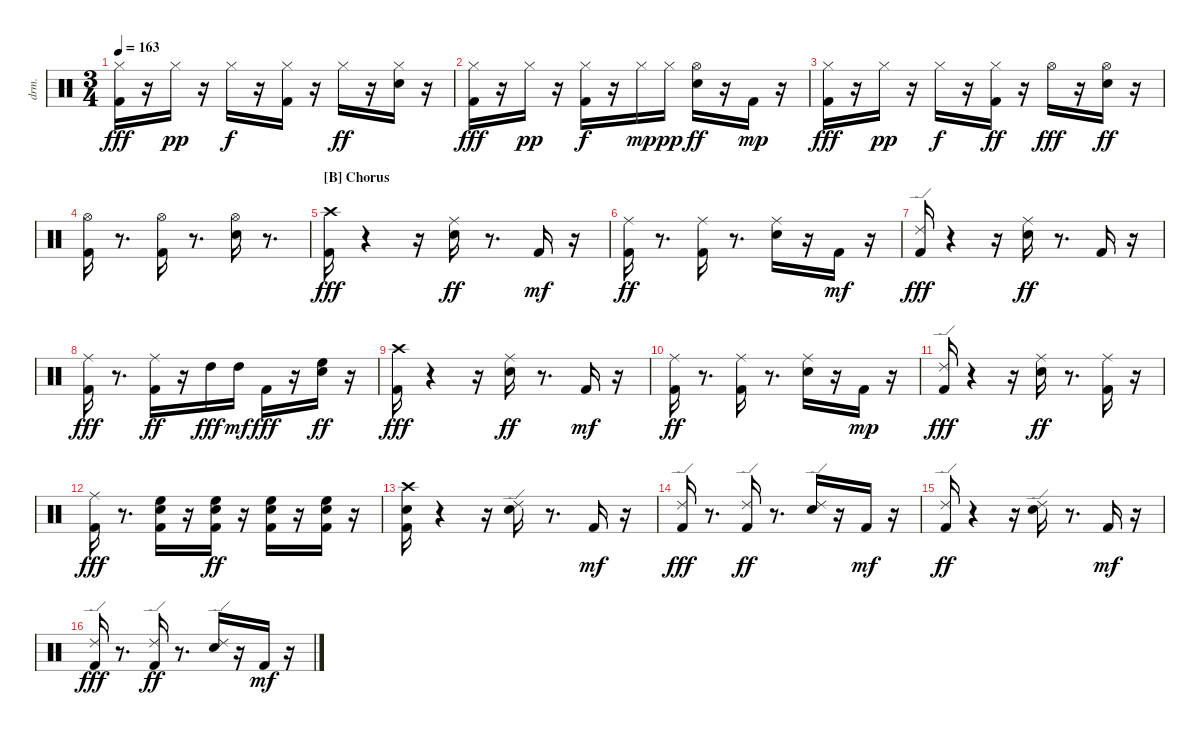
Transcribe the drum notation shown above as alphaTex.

\bracketExtendMode nobrackets
\track ("EZdrummer 3" "drm.") {instrument percussion}
\staff {score}
\articulation defaults
\ts (3 4)
\tempo 163
\clef neutral
\ks aminor
("Kick (hit) 2" "Hi-Hat (closed)"{acc #}).16{dy fff beam Down} r.16{beam Down} "Hi-Hat (closed)"{acc #}.16{dy pp beam Down} r.16{beam Down} "Hi-Hat (closed)"{acc #}.16{dy f beam Down} r.16{beam Down} ("Kick (hit) 2" "Hi-Hat (closed)"{acc #}).16{beam Down} r.16{beam Down} "Hi-Hat (closed)"{acc #}.16{dy ff beam Down} r.16{beam Down} ("Snare (hit) 2" "Hi-Hat (closed)"{acc #}).16{beam Down} r.16{beam Down} |
("Kick (hit) 2" "Hi-Hat (closed)"{acc #}).16{dy fff beam Down} r.16{beam Down} "Hi-Hat (closed)"{acc #}.16{dy pp beam Down} r.16{beam Down} ("Kick (hit) 2" "Hi-Hat (closed)"{acc #}).16{dy f beam Down} r.16{beam Down} "Hi-Hat (closed)"{acc #}.16{dy mp beam Down} "Hi-Hat (closed)"{acc #}.16{dy pp beam Down} ("Snare (hit) 2" "Hi-Hat (open)"{acc #}).16{dy ff beam Down} r.16{beam Down} "Kick (hit) 2".16{dy mp beam Down} r.16{beam Down} |
("Kick (hit) 2" "Hi-Hat (closed)"{acc #}).16{dy fff beam Down} r.16{beam Down} "Hi-Hat (closed)"{acc #}.16{dy pp beam Down} r.16{beam Down} "Hi-Hat (closed)"{acc #}.16{dy f beam Down} r.16{beam Down} ("Kick (hit) 2" "Hi-Hat (closed)"{acc #}).16{dy ff beam Down} r.16{beam Down} "Hi-Hat (open)"{acc #}.16{dy fff beam Down} r.16{beam Down} ("Snare (hit) 2" "Hi-Hat (open)"{acc #}).16{dy ff beam Down} r.16{beam Down} |
("Kick (hit) 2" "Hi-Hat (open)"{acc #}).16{beam Down} r.8{d beam Down} ("Kick (hit) 2" "Hi-Hat (open)"{acc #}).16{beam Down} r.8{d beam Down} ("Snare (hit) 2" "Hi-Hat (open)"{acc #}).16{beam Down} r.8{d beam Down} |
\section ("B" "Chorus")
("Kick (hit) 2" "Crash high (hit)"{acc #}).16{dy fff beam Down} r.4{beam Down} r.16{beam Down} ("Snare (hit) 2" "Ride (middle)"{acc #}).16{dy ff beam Down} r.8{d beam Down} "Kick (hit) 2".16{dy mf beam Up} r.16{beam Down} |
("Kick (hit) 2" "Ride (middle)"{acc #}).16{dy ff beam Down} r.8{d beam Down} ("Kick (hit) 2" "Ride (middle)"{acc #}).16{beam Down} r.8{d beam Down} ("Snare (hit) 2" "Ride (middle)"{acc #}).16{beam Down} r.16{beam Down} "Kick (hit) 2".16{dy mf beam Down} r.16{beam Down} |
("Kick (hit) 2" "Ride (edge) 2").16{dy fff beam Up} r.4{beam Down} r.16{beam Down} ("Snare (hit) 2" "Ride (middle)"{acc #}).16{dy ff beam Down} r.8{d beam Down} "Kick (hit) 2".16{beam Up} r.16{beam Down} |
("Kick (hit) 2" "Ride (middle)"{acc #}).16{dy fff beam Down} r.8{d beam Down} ("Kick (hit) 2" "Ride (middle)"{acc #}).16{dy ff beam Down} r.16{beam Down} "High Tom (hit)".16{dy fff beam Down} "High Tom (hit)".16{dy mf beam Down} "Kick (hit) 2".16{dy fff beam Down} r.16{beam Down} ("Snare (hit) 2" "High Floor Tom (hit)").16{dy ff beam Down} r.16{beam Down} |
("Kick (hit) 2" "Crash high (hit)"{acc #}).16{dy fff beam Down} r.4{beam Down} r.16{beam Down} ("Snare (hit) 2" "Ride (middle)"{acc #}).16{dy ff beam Down} r.8{d beam Down} "Kick (hit) 2".16{dy mf beam Up} r.16{beam Down} |
("Kick (hit) 2" "Ride (middle)"{acc #}).16{dy ff beam Down} r.8{d beam Down} ("Kick (hit) 2" "Ride (middle)"{acc #}).16{beam Down} r.8{d beam Down} ("Snare (hit) 2" "Ride (middle)"{acc #}).16{beam Down} r.16{beam Down} "Kick (hit) 2".16{dy mp beam Down} r.16{beam Down} |
("Kick (hit) 2" "Ride (edge) 2").16{dy fff beam Up} r.4{beam Down} r.16{beam Down} ("Snare (hit) 2" "Ride (middle)"{acc #}).16{dy ff beam Down} r.8{d beam Down} ("Kick (hit) 2" "Ride (middle)"{acc #}).16{beam Down} r.16{beam Down} |
("Kick (hit) 2" "Ride (middle)"{acc #}).16{dy fff beam Down} r.8{d beam Down} ("Kick (hit) 2" "Snare (hit) 2" "High Floor Tom (hit)").16{beam Down} r.16{beam Down} ("Kick (hit) 2" "Snare (hit) 2" "High Floor Tom (hit)").16{dy ff beam Down} r.16{beam Down} ("Kick (hit) 2" "Snare (hit) 2" "High Floor Tom (hit)").16{beam Down} r.16{beam Down} ("Kick (hit) 2" "Snare (hit) 2" "High Floor Tom (hit)").16{beam Down} r.16{beam Down} |
("Kick (hit) 2" "Snare (hit) 2" "Crash high (hit)"{acc #}).16{beam Down} r.4{beam Down} r.16{beam Down} ("Snare (hit) 2" "Ride (edge) 2").16{beam Down} r.8{d beam Down} "Kick (hit) 2".16{dy mf beam Up} r.16{beam Down} |
("Kick (hit) 2" "Ride (edge) 2").16{dy fff beam Up} r.8{d beam Down} ("Kick (hit) 2" "Ride (edge) 2").16{dy ff beam Up} r.8{d beam Down} ("Snare (hit) 2" "Ride (edge) 2").16{beam Up} r.16{beam Up} "Kick (hit) 2".16{dy mf beam Up} r.16{beam Down} |
("Kick (hit) 2" "Ride (edge) 2").16{dy ff beam Up} r.4{beam Down} r.16{beam Down} ("Snare (hit) 2" "Ride (edge) 2").16{beam Down} r.8{d beam Down} "Kick (hit) 2".16{dy mf beam Up} r.16{beam Down} |
("Kick (hit) 2" "Ride (edge) 2").16{dy fff beam Up} r.8{d beam Down} ("Kick (hit) 2" "Ride (edge) 2").16{dy ff beam Up} r.8{d beam Down} ("Snare (hit) 2" "Ride (edge) 2").16{beam Up} r.16{beam Up} "Kick (hit) 2".16{dy mf beam Up} r.16{beam Down}
